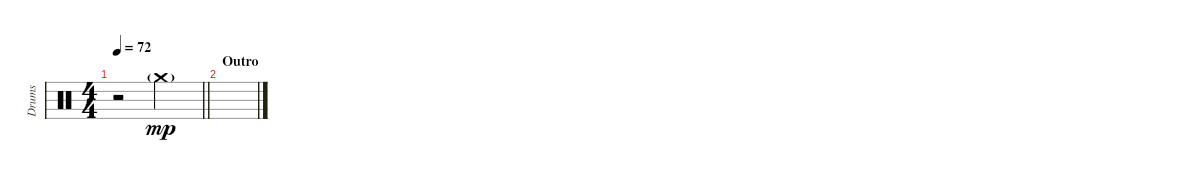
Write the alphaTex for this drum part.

\track ("Drums" "Drums") {instrument percussion}
\staff {score}
\articulation defaults
\ts (4 4)
\tempo 72
\clef neutral
\barLineRight lightlight
\ks c
r.2{dy f} "Crash medium (hit)"{g}.2{dy mp} |
\section ("" "Outro")
